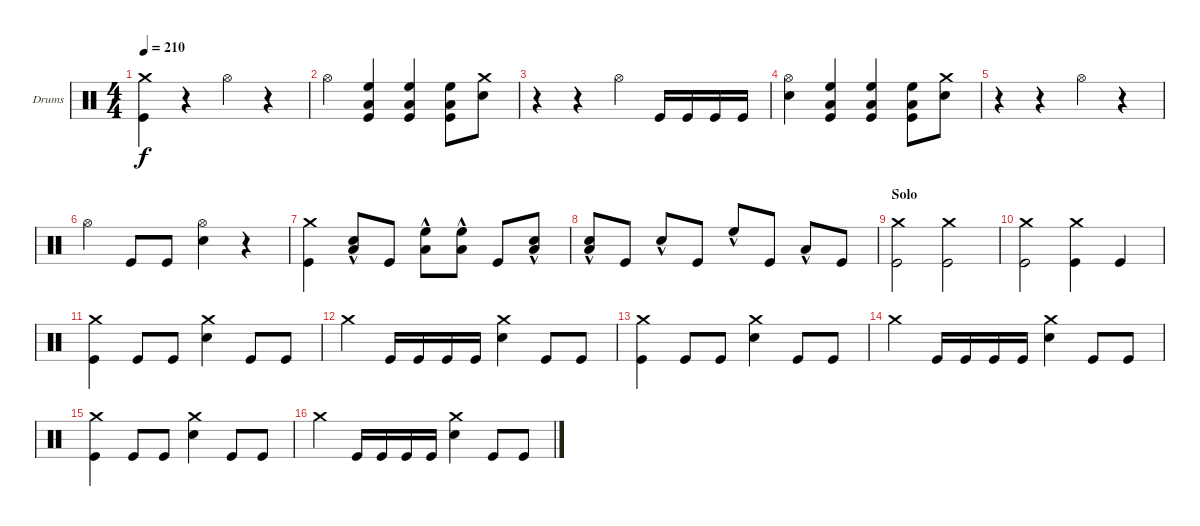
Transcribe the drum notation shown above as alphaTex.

\bracketExtendMode groupsimilarinstruments
\firstSystemTrackNameOrientation horizontal
\otherSystemsTrackNameOrientation horizontal
\track ("Drumkit" "Drums") {instrument percussion}
\staff {score}
\articulation defaults
\ts (4 4)
\tempo 210
\clef neutral
\ks c
("Crash medium (hit)" "Kick (hit)").4{dy f} r.4 "Hi-Hat (open)".4 r.4 |
"Hi-Hat (open)".4 ("Low Tom (hit)" "High Floor Tom (hit)" "Kick (hit)").4 ("Low Tom (hit)" "High Floor Tom (hit)" "Kick (hit)").4 ("Low Tom (hit)" "High Floor Tom (hit)" "Kick (hit)").8 ("Crash medium (hit)" "Snare (hit) 2").8 |
r.4 r.4 "Hi-Hat (open)".4 "Kick (hit)".16 "Kick (hit)".16 "Kick (hit)".16 "Kick (hit)".16 |
("Hi-Hat (open)" "Snare (hit) 2").4 ("Low Tom (hit)" "High Floor Tom (hit)" "Kick (hit)").4 ("Low Tom (hit)" "High Floor Tom (hit)" "Kick (hit)").4 ("Low Tom (hit)" "High Floor Tom (hit)" "Kick (hit)").8 ("Crash medium (hit)" "Snare (hit) 2").8 |
r.4 r.4 "Hi-Hat (open)".4 r.4 |
"Hi-Hat (open)".4 "Kick (hit)".8 "Kick (hit)".8 ("Hi-Hat (open)" "Snare (hit) 2").4 r.4 |
("Crash medium (hit)" "Kick (hit)").4 ("Low Tom (hit)" "Snare (hit) 2"{hac}).8 "Kick (hit)".8 ("High Floor Tom (hit)"{hac} "Low Tom (hit)").8 ("High Floor Tom (hit)"{hac} "Low Tom (hit)").8 "Kick (hit)".8 ("Low Tom (hit)" "Snare (hit) 2"{hac}).8 |
("Low Tom (hit)" "Snare (hit) 2"{hac}).8 "Kick (hit)".8 "Snare (hit) 2"{hac}.8 "Kick (hit)".8 "High Floor Tom (hit)"{hac}.8 "Kick (hit)".8 "Low Tom (hit)"{hac}.8 "Kick (hit)".8 |
\section ("" "Solo")
("Crash medium (hit)" "Kick (hit)").2 ("Crash medium (hit)" "Kick (hit)").2 |
("Crash medium (hit)" "Kick (hit)").2 ("Crash medium (hit)" "Kick (hit)").4 "Kick (hit)".4 |
("Crash medium (hit)" "Kick (hit)").4 "Kick (hit)".8 "Kick (hit)".8 ("Crash medium (hit)" "Snare (hit) 2").4 "Kick (hit)".8 "Kick (hit)".8 |
"Crash medium (hit)".4 "Kick (hit)".16 "Kick (hit)".16 "Kick (hit)".16 "Kick (hit)".16 ("Crash medium (hit)" "Snare (hit) 2").4 "Kick (hit)".8 "Kick (hit)".8 |
("Crash medium (hit)" "Kick (hit)").4 "Kick (hit)".8 "Kick (hit)".8 ("Crash medium (hit)" "Snare (hit) 2").4 "Kick (hit)".8 "Kick (hit)".8 |
"Crash medium (hit)".4 "Kick (hit)".16 "Kick (hit)".16 "Kick (hit)".16 "Kick (hit)".16 ("Crash medium (hit)" "Snare (hit) 2").4 "Kick (hit)".8 "Kick (hit)".8 |
("Crash medium (hit)" "Kick (hit)").4 "Kick (hit)".8 "Kick (hit)".8 ("Crash medium (hit)" "Snare (hit) 2").4 "Kick (hit)".8 "Kick (hit)".8 |
"Crash medium (hit)".4 "Kick (hit)".16 "Kick (hit)".16 "Kick (hit)".16 "Kick (hit)".16 ("Crash medium (hit)" "Snare (hit) 2").4 "Kick (hit)".8 "Kick (hit)".8
